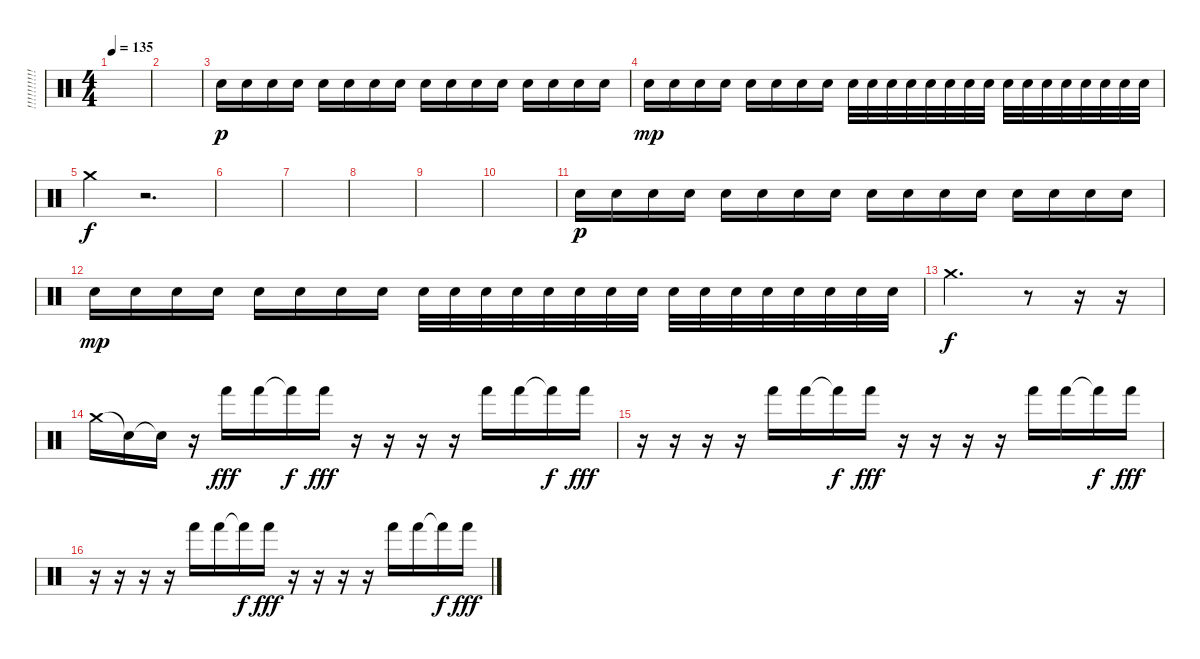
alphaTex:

\track ("!!!!!!!!!!!!!" "!!!!!!!!!!") {instrument percussion}
\staff {score}
\articulation defaults
\ts (4 4)
\tempo 135
\clef neutral
\ks c
|
|
"Electric Snare (hit)".16{dy p} "Electric Snare (hit)".16 "Electric Snare (hit)".16 "Electric Snare (hit)".16 "Electric Snare (hit)".16 "Electric Snare (hit)".16 "Electric Snare (hit)".16 "Electric Snare (hit)".16 "Electric Snare (hit)".16 "Electric Snare (hit)".16 "Electric Snare (hit)".16 "Electric Snare (hit)".16 "Electric Snare (hit)".16 "Electric Snare (hit)".16 "Electric Snare (hit)".16 "Electric Snare (hit)".16 |
"Electric Snare (hit)".16{dy mp} "Electric Snare (hit)".16 "Electric Snare (hit)".16 "Electric Snare (hit)".16 "Electric Snare (hit)".16 "Electric Snare (hit)".16 "Electric Snare (hit)".16 "Electric Snare (hit)".16 "Electric Snare (hit)".32 "Electric Snare (hit)".32 "Electric Snare (hit)".32 "Electric Snare (hit)".32 "Electric Snare (hit)".32 "Electric Snare (hit)".32 "Electric Snare (hit)".32 "Electric Snare (hit)".32 "Electric Snare (hit)".32 "Electric Snare (hit)".32 "Electric Snare (hit)".32 "Electric Snare (hit)".32 "Electric Snare (hit)".32 "Electric Snare (hit)".32 "Electric Snare (hit)".32 "Electric Snare (hit)".32 |
"Crash medium (hit)".4{dy f} r.2{d} |
|
|
|
|
|
"Electric Snare (hit)".16{dy p} "Electric Snare (hit)".16 "Electric Snare (hit)".16 "Electric Snare (hit)".16 "Electric Snare (hit)".16 "Electric Snare (hit)".16 "Electric Snare (hit)".16 "Electric Snare (hit)".16 "Electric Snare (hit)".16 "Electric Snare (hit)".16 "Electric Snare (hit)".16 "Electric Snare (hit)".16 "Electric Snare (hit)".16 "Electric Snare (hit)".16 "Electric Snare (hit)".16 "Electric Snare (hit)".16 |
"Electric Snare (hit)".16{dy mp} "Electric Snare (hit)".16 "Electric Snare (hit)".16 "Electric Snare (hit)".16 "Electric Snare (hit)".16 "Electric Snare (hit)".16 "Electric Snare (hit)".16 "Electric Snare (hit)".16 "Electric Snare (hit)".32 "Electric Snare (hit)".32 "Electric Snare (hit)".32 "Electric Snare (hit)".32 "Electric Snare (hit)".32 "Electric Snare (hit)".32 "Electric Snare (hit)".32 "Electric Snare (hit)".32 "Electric Snare (hit)".32 "Electric Snare (hit)".32 "Electric Snare (hit)".32 "Electric Snare (hit)".32 "Electric Snare (hit)".32 "Electric Snare (hit)".32 "Electric Snare (hit)".32 "Electric Snare (hit)".32 |
"Crash medium (hit)".2{d dy f} r.8 r.16 r.16 |
"Crash medium (hit)".16 "Snare (hit)"{t}.16 "Snare (hit)"{t}.16 r.16 "Hand (hit)".16{dy fff} "Hand (hit)".16 "Hand (hit)"{t}.16{dy f} "Hand (hit)".16{dy fff} r.16 r.16 r.16 r.16 "Hand (hit)".16 "Hand (hit)".16 "Hand (hit)"{t}.16{dy f} "Hand (hit)".16{dy fff} |
r.16 r.16 r.16 r.16 "Hand (hit)".16 "Hand (hit)".16 "Hand (hit)"{t}.16{dy f} "Hand (hit)".16{dy fff} r.16 r.16 r.16 r.16 "Hand (hit)".16 "Hand (hit)".16 "Hand (hit)"{t}.16{dy f} "Hand (hit)".16{dy fff} |
r.16 r.16 r.16 r.16 "Hand (hit)".16 "Hand (hit)".16 "Hand (hit)"{t}.16{dy f} "Hand (hit)".16{dy fff} r.16 r.16 r.16 r.16 "Hand (hit)".16 "Hand (hit)".16 "Hand (hit)"{t}.16{dy f} "Hand (hit)".16{dy fff}
